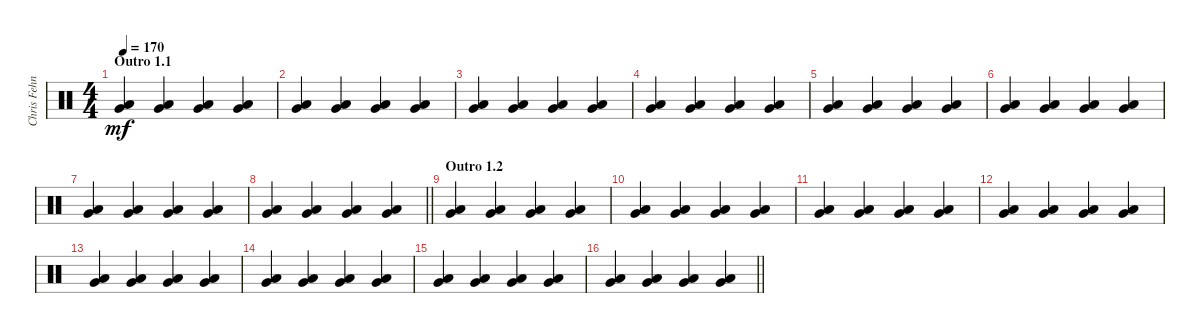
\track ("Chris Fehn" "Chris Fehn") {instrument percussion}
\staff {score}
\articulation defaults
\ts (4 4)
\section ("" "Outro 1.1")
\tempo 170
\clef neutral
\ks c
("Very Low Tom (hit)" "Low Floor Tom (hit)").4{dy mf} ("Very Low Tom (hit)" "Low Floor Tom (hit)").4 ("Very Low Tom (hit)" "Low Floor Tom (hit)").4 ("Very Low Tom (hit)" "Low Floor Tom (hit)").4 |
("Very Low Tom (hit)" "Low Floor Tom (hit)").4 ("Very Low Tom (hit)" "Low Floor Tom (hit)").4 ("Very Low Tom (hit)" "Low Floor Tom (hit)").4 ("Very Low Tom (hit)" "Low Floor Tom (hit)").4 |
("Very Low Tom (hit)" "Low Floor Tom (hit)").4 ("Very Low Tom (hit)" "Low Floor Tom (hit)").4 ("Very Low Tom (hit)" "Low Floor Tom (hit)").4 ("Very Low Tom (hit)" "Low Floor Tom (hit)").4 |
("Very Low Tom (hit)" "Low Floor Tom (hit)").4 ("Very Low Tom (hit)" "Low Floor Tom (hit)").4 ("Very Low Tom (hit)" "Low Floor Tom (hit)").4 ("Very Low Tom (hit)" "Low Floor Tom (hit)").4 |
("Very Low Tom (hit)" "Low Floor Tom (hit)").4 ("Very Low Tom (hit)" "Low Floor Tom (hit)").4 ("Very Low Tom (hit)" "Low Floor Tom (hit)").4 ("Very Low Tom (hit)" "Low Floor Tom (hit)").4 |
("Very Low Tom (hit)" "Low Floor Tom (hit)").4 ("Very Low Tom (hit)" "Low Floor Tom (hit)").4 ("Very Low Tom (hit)" "Low Floor Tom (hit)").4 ("Very Low Tom (hit)" "Low Floor Tom (hit)").4 |
("Very Low Tom (hit)" "Low Floor Tom (hit)").4 ("Very Low Tom (hit)" "Low Floor Tom (hit)").4 ("Very Low Tom (hit)" "Low Floor Tom (hit)").4 ("Very Low Tom (hit)" "Low Floor Tom (hit)").4 |
\barLineRight lightlight
("Very Low Tom (hit)" "Low Floor Tom (hit)").4 ("Very Low Tom (hit)" "Low Floor Tom (hit)").4 ("Very Low Tom (hit)" "Low Floor Tom (hit)").4 ("Very Low Tom (hit)" "Low Floor Tom (hit)").4 |
\section ("" "Outro 1.2")
("Very Low Tom (hit)" "Low Floor Tom (hit)").4 ("Very Low Tom (hit)" "Low Floor Tom (hit)").4 ("Very Low Tom (hit)" "Low Floor Tom (hit)").4 ("Very Low Tom (hit)" "Low Floor Tom (hit)").4 |
("Very Low Tom (hit)" "Low Floor Tom (hit)").4 ("Very Low Tom (hit)" "Low Floor Tom (hit)").4 ("Very Low Tom (hit)" "Low Floor Tom (hit)").4 ("Very Low Tom (hit)" "Low Floor Tom (hit)").4 |
("Very Low Tom (hit)" "Low Floor Tom (hit)").4 ("Very Low Tom (hit)" "Low Floor Tom (hit)").4 ("Very Low Tom (hit)" "Low Floor Tom (hit)").4 ("Very Low Tom (hit)" "Low Floor Tom (hit)").4 |
("Very Low Tom (hit)" "Low Floor Tom (hit)").4 ("Very Low Tom (hit)" "Low Floor Tom (hit)").4 ("Very Low Tom (hit)" "Low Floor Tom (hit)").4 ("Very Low Tom (hit)" "Low Floor Tom (hit)").4 |
("Very Low Tom (hit)" "Low Floor Tom (hit)").4 ("Very Low Tom (hit)" "Low Floor Tom (hit)").4 ("Very Low Tom (hit)" "Low Floor Tom (hit)").4 ("Very Low Tom (hit)" "Low Floor Tom (hit)").4 |
("Very Low Tom (hit)" "Low Floor Tom (hit)").4 ("Very Low Tom (hit)" "Low Floor Tom (hit)").4 ("Very Low Tom (hit)" "Low Floor Tom (hit)").4 ("Very Low Tom (hit)" "Low Floor Tom (hit)").4 |
("Very Low Tom (hit)" "Low Floor Tom (hit)").4 ("Very Low Tom (hit)" "Low Floor Tom (hit)").4 ("Very Low Tom (hit)" "Low Floor Tom (hit)").4 ("Very Low Tom (hit)" "Low Floor Tom (hit)").4 |
\barLineRight lightlight
("Very Low Tom (hit)" "Low Floor Tom (hit)").4 ("Very Low Tom (hit)" "Low Floor Tom (hit)").4 ("Very Low Tom (hit)" "Low Floor Tom (hit)").4 ("Very Low Tom (hit)" "Low Floor Tom (hit)").4
